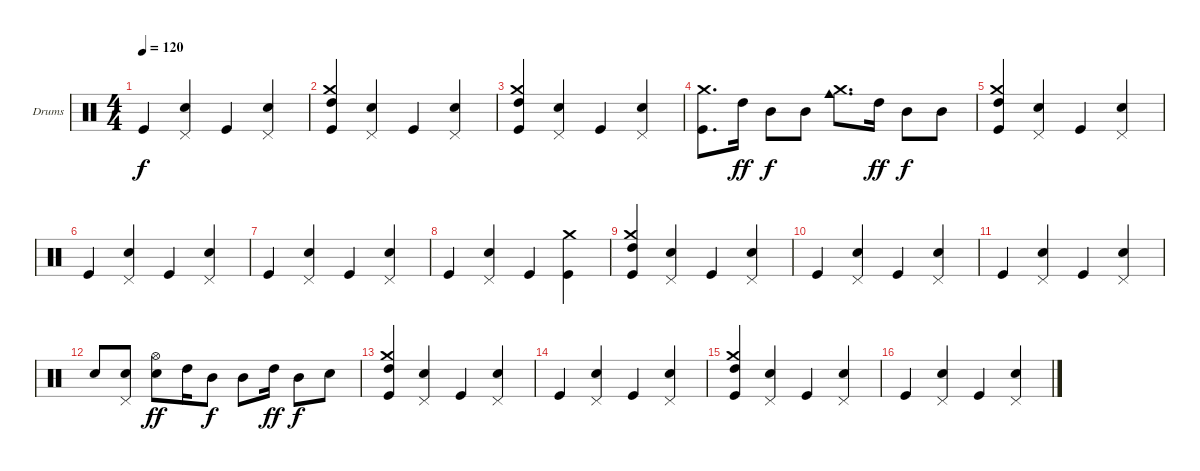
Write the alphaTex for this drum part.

\defaultSystemsLayout 4
\bracketExtendMode groupsimilarinstruments
\firstSystemTrackNameOrientation horizontal
\otherSystemsTrackNameOrientation horizontal
\track ("Drumkit" "Drums") {instrument percussion}
\staff {score}
\articulation defaults
\ts (4 4)
\tempo 120
\clef neutral
\ks c "Kick (hit)".4{dy f}
("Pedal Hi-Hat (hit)" "Snare (hit) 2").4 "Kick (hit)".4 ("Pedal Hi-Hat (hit)" "Snare (hit) 2").4 |
("Kick (hit)" "Crash medium (hit)" "High Tom (hit)").4 ("Pedal Hi-Hat (hit)" "Snare (hit) 2").4 "Kick (hit)".4 ("Pedal Hi-Hat (hit)" "Snare (hit) 2").4 |
("Kick (hit)" "Crash medium (hit)" "High Tom (hit)").4 ("Pedal Hi-Hat (hit)" "Snare (hit) 2").4 "Kick (hit)".4 ("Pedal Hi-Hat (hit)" "Snare (hit) 2").4 |
("Kick (hit)" "Crash medium (hit)").8{d} "High Tom (hit)".16{dy ff} "Mid Tom (hit)".8{dy f} "Mid Tom (hit)".8 ("Crash medium (hit)" "Cowbell medium (hit)").8{d} "High Tom (hit)".16{dy ff} "Mid Tom (hit)".8{dy f} "Mid Tom (hit)".8 |
("Kick (hit)" "Crash medium (hit)" "High Tom (hit)").4 ("Pedal Hi-Hat (hit)" "Snare (hit) 2").4 "Kick (hit)".4 ("Pedal Hi-Hat (hit)" "Snare (hit) 2").4 |
"Kick (hit)".4 ("Pedal Hi-Hat (hit)" "Snare (hit) 2").4 "Kick (hit)".4 ("Pedal Hi-Hat (hit)" "Snare (hit) 2").4 |
"Kick (hit)".4 ("Pedal Hi-Hat (hit)" "Snare (hit) 2").4 "Kick (hit)".4 ("Pedal Hi-Hat (hit)" "Snare (hit) 2").4 |
"Kick (hit)".4 ("Pedal Hi-Hat (hit)" "Snare (hit) 2").4 "Kick (hit)".4 ("Kick (hit)" "Crash medium (hit)").4 |
("Kick (hit)" "Crash medium (hit)" "High Tom (hit)").4 ("Pedal Hi-Hat (hit)" "Snare (hit) 2").4 "Kick (hit)".4 ("Pedal Hi-Hat (hit)" "Snare (hit) 2").4 |
"Kick (hit)".4 ("Pedal Hi-Hat (hit)" "Snare (hit) 2").4 "Kick (hit)".4 ("Pedal Hi-Hat (hit)" "Snare (hit) 2").4 |
"Kick (hit)".4 ("Pedal Hi-Hat (hit)" "Snare (hit) 2").4 "Kick (hit)".4 ("Pedal Hi-Hat (hit)" "Snare (hit) 2").4 |
"Snare (hit) 2".8 ("Snare (hit) 2" "Pedal Hi-Hat (hit)").8 ("Snare (hit) 2" "Hi-Hat (open)").8{dy ff} "High Tom (hit)".16 "Mid Tom (hit)".8{dy f} "Mid Tom (hit)".8 "High Tom (hit)".16{dy ff} "Mid Tom (hit)".8{dy f} "Snare (hit) 2".8 |
("Kick (hit)" "Crash medium (hit)" "High Tom (hit)").4 ("Pedal Hi-Hat (hit)" "Snare (hit) 2").4 "Kick (hit)".4 ("Pedal Hi-Hat (hit)" "Snare (hit) 2").4 |
"Kick (hit)".4 ("Pedal Hi-Hat (hit)" "Snare (hit) 2").4 "Kick (hit)".4 ("Pedal Hi-Hat (hit)" "Snare (hit) 2").4 |
("Kick (hit)" "Crash medium (hit)" "High Tom (hit)").4 ("Pedal Hi-Hat (hit)" "Snare (hit) 2").4 "Kick (hit)".4 ("Pedal Hi-Hat (hit)" "Snare (hit) 2").4 |
"Kick (hit)".4 ("Pedal Hi-Hat (hit)" "Snare (hit) 2").4 "Kick (hit)".4 ("Pedal Hi-Hat (hit)" "Snare (hit) 2").4
